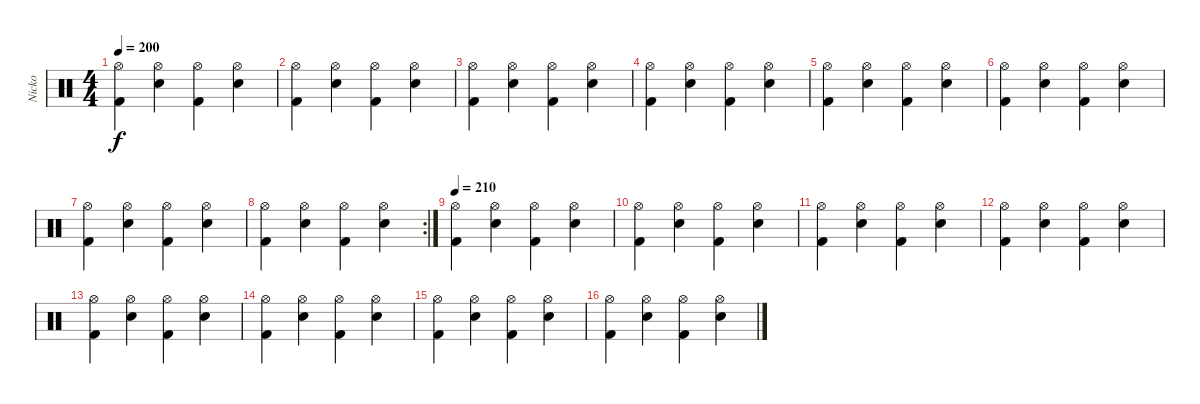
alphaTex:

\track ("Nicko" "Nicko") {instrument percussion}
\staff {score}
\articulation defaults
\ts (4 4)
\tempo 200
\clef neutral
\ks c
("Hi-Hat (open)" "Kick (hit) 2").4{dy f} ("Hi-Hat (open)" "Electric Snare (hit)").4 ("Hi-Hat (open)" "Kick (hit) 2").4 ("Hi-Hat (open)" "Electric Snare (hit)").4 |
("Hi-Hat (open)" "Kick (hit) 2").4 ("Hi-Hat (open)" "Electric Snare (hit)").4 ("Hi-Hat (open)" "Kick (hit) 2").4 ("Hi-Hat (open)" "Electric Snare (hit)").4 |
("Hi-Hat (open)" "Kick (hit) 2").4 ("Hi-Hat (open)" "Electric Snare (hit)").4 ("Hi-Hat (open)" "Kick (hit) 2").4 ("Hi-Hat (open)" "Electric Snare (hit)").4 |
("Hi-Hat (open)" "Kick (hit) 2").4 ("Hi-Hat (open)" "Electric Snare (hit)").4 ("Hi-Hat (open)" "Kick (hit) 2").4 ("Hi-Hat (open)" "Electric Snare (hit)").4 |
("Hi-Hat (open)" "Kick (hit) 2").4 ("Hi-Hat (open)" "Electric Snare (hit)").4 ("Hi-Hat (open)" "Kick (hit) 2").4 ("Hi-Hat (open)" "Electric Snare (hit)").4 |
("Hi-Hat (open)" "Kick (hit) 2").4 ("Hi-Hat (open)" "Electric Snare (hit)").4 ("Hi-Hat (open)" "Kick (hit) 2").4 ("Hi-Hat (open)" "Electric Snare (hit)").4 |
("Hi-Hat (open)" "Kick (hit) 2").4 ("Hi-Hat (open)" "Electric Snare (hit)").4 ("Hi-Hat (open)" "Kick (hit) 2").4 ("Hi-Hat (open)" "Electric Snare (hit)").4 |
\rc 2
("Hi-Hat (open)" "Kick (hit) 2").4 ("Hi-Hat (open)" "Electric Snare (hit)").4 ("Hi-Hat (open)" "Kick (hit) 2").4 ("Hi-Hat (open)" "Electric Snare (hit)").4 |
\tempo 210
("Hi-Hat (open)" "Kick (hit) 2").4 ("Hi-Hat (open)" "Electric Snare (hit)").4 ("Hi-Hat (open)" "Kick (hit) 2").4 ("Hi-Hat (open)" "Electric Snare (hit)").4 |
("Hi-Hat (open)" "Kick (hit) 2").4 ("Hi-Hat (open)" "Electric Snare (hit)").4 ("Hi-Hat (open)" "Kick (hit) 2").4 ("Hi-Hat (open)" "Electric Snare (hit)").4 |
("Hi-Hat (open)" "Kick (hit) 2").4 ("Hi-Hat (open)" "Electric Snare (hit)").4 ("Hi-Hat (open)" "Kick (hit) 2").4 ("Hi-Hat (open)" "Electric Snare (hit)").4 |
("Hi-Hat (open)" "Kick (hit) 2").4 ("Hi-Hat (open)" "Electric Snare (hit)").4 ("Hi-Hat (open)" "Kick (hit) 2").4 ("Hi-Hat (open)" "Electric Snare (hit)").4 |
("Hi-Hat (open)" "Kick (hit) 2").4 ("Hi-Hat (open)" "Electric Snare (hit)").4 ("Hi-Hat (open)" "Kick (hit) 2").4 ("Hi-Hat (open)" "Electric Snare (hit)").4 |
("Hi-Hat (open)" "Kick (hit) 2").4 ("Hi-Hat (open)" "Electric Snare (hit)").4 ("Hi-Hat (open)" "Kick (hit) 2").4 ("Hi-Hat (open)" "Electric Snare (hit)").4 |
("Hi-Hat (open)" "Kick (hit) 2").4 ("Hi-Hat (open)" "Electric Snare (hit)").4 ("Hi-Hat (open)" "Kick (hit) 2").4 ("Hi-Hat (open)" "Electric Snare (hit)").4 |
("Hi-Hat (open)" "Kick (hit) 2").4 ("Hi-Hat (open)" "Electric Snare (hit)").4 ("Hi-Hat (open)" "Kick (hit) 2").4 ("Hi-Hat (open)" "Electric Snare (hit)").4
